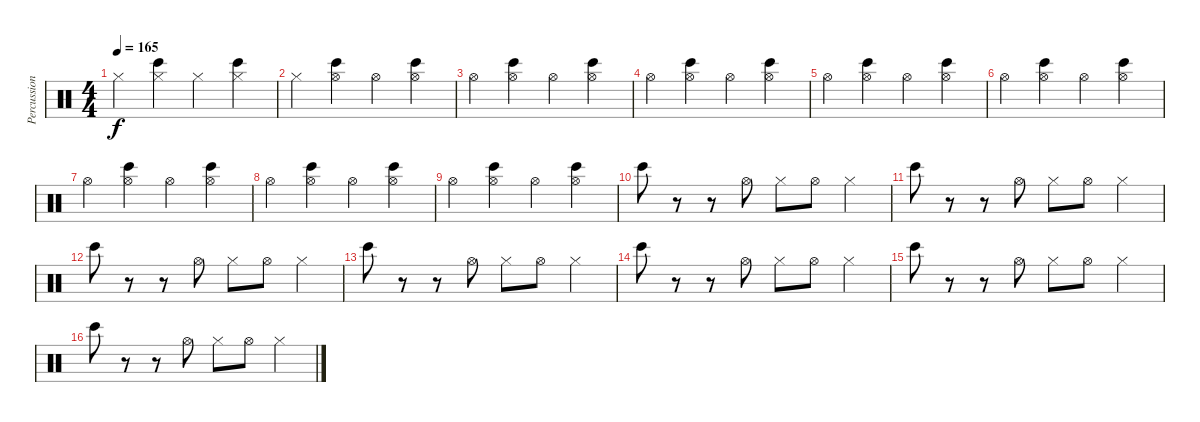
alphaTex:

\track ("Percussion" "Percussion") {instrument percussion}
\staff {score}
\articulation defaults
\ts (4 4)
\tempo 165
\clef neutral
\ks c "Hi-Hat (closed)".4{dy f}
("Bongo High (hit)" "Hi-Hat (closed)").4 "Hi-Hat (closed)".4 ("Bongo High (hit)" "Hi-Hat (closed)").4 |
"Hi-Hat (closed)".4 ("Bongo High (hit)" "Hi-Hat (open)").4 "Hi-Hat (open)".4 ("Bongo High (hit)" "Hi-Hat (open)").4 |
"Hi-Hat (open)".4 ("Bongo High (hit)" "Hi-Hat (open)").4 "Hi-Hat (open)".4 ("Bongo High (hit)" "Hi-Hat (open)").4 |
"Hi-Hat (open)".4 ("Bongo High (hit)" "Hi-Hat (open)").4 "Hi-Hat (open)".4 ("Bongo High (hit)" "Hi-Hat (open)").4 |
"Hi-Hat (open)".4 ("Bongo High (hit)" "Hi-Hat (open)").4 "Hi-Hat (open)".4 ("Bongo High (hit)" "Hi-Hat (open)").4 |
"Hi-Hat (open)".4 ("Bongo High (hit)" "Hi-Hat (open)").4 "Hi-Hat (open)".4 ("Bongo High (hit)" "Hi-Hat (open)").4 |
"Hi-Hat (open)".4 ("Bongo High (hit)" "Hi-Hat (open)").4 "Hi-Hat (open)".4 ("Bongo High (hit)" "Hi-Hat (open)").4 |
"Hi-Hat (open)".4 ("Bongo High (hit)" "Hi-Hat (open)").4 "Hi-Hat (open)".4 ("Bongo High (hit)" "Hi-Hat (open)").4 |
"Hi-Hat (open)".4 ("Bongo High (hit)" "Hi-Hat (open)").4 "Hi-Hat (open)".4 ("Bongo High (hit)" "Hi-Hat (open)").4 |
"Bongo High (hit)".8 r.8 r.8 "Hi-Hat (open)".8 "Hi-Hat (closed)".8 "Hi-Hat (open)".8 "Hi-Hat (closed)".4 |
"Bongo High (hit)".8 r.8 r.8 "Hi-Hat (open)".8 "Hi-Hat (closed)".8 "Hi-Hat (open)".8 "Hi-Hat (closed)".4 |
"Bongo High (hit)".8 r.8 r.8 "Hi-Hat (open)".8 "Hi-Hat (closed)".8 "Hi-Hat (open)".8 "Hi-Hat (closed)".4 |
"Bongo High (hit)".8 r.8 r.8 "Hi-Hat (open)".8 "Hi-Hat (closed)".8 "Hi-Hat (open)".8 "Hi-Hat (closed)".4 |
"Bongo High (hit)".8 r.8 r.8 "Hi-Hat (open)".8 "Hi-Hat (closed)".8 "Hi-Hat (open)".8 "Hi-Hat (closed)".4 |
"Bongo High (hit)".8 r.8 r.8 "Hi-Hat (open)".8 "Hi-Hat (closed)".8 "Hi-Hat (open)".8 "Hi-Hat (closed)".4 |
"Bongo High (hit)".8 r.8 r.8 "Hi-Hat (open)".8 "Hi-Hat (closed)".8 "Hi-Hat (open)".8 "Hi-Hat (closed)".4
